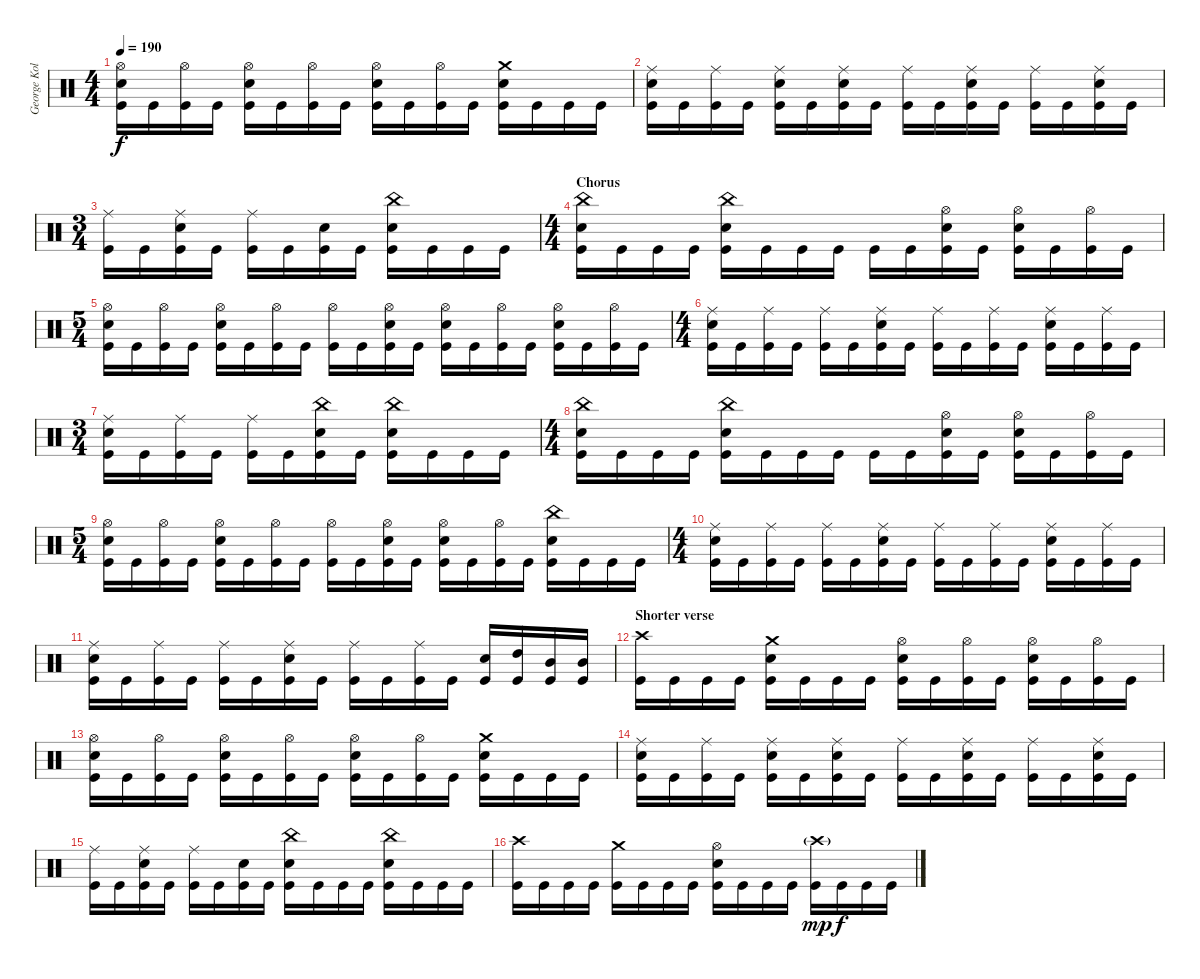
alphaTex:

\track ("George Kollias" "George Kol") {instrument percussion}
\staff {score}
\articulation defaults
\ts (4 4)
\tempo 190
\clef neutral
\ks c
("Hi-Hat (open)" "Snare (hit) 2" "Kick (hit)").16{dy f} "Kick (hit)".16 ("Hi-Hat (open)" "Kick (hit)").16 "Kick (hit)".16 ("Hi-Hat (open)" "Snare (hit) 2" "Kick (hit)").16 "Kick (hit)".16 ("Hi-Hat (open)" "Kick (hit)").16 "Kick (hit)".16 ("Hi-Hat (open)" "Snare (hit) 2" "Kick (hit)").16 "Kick (hit)".16 ("Hi-Hat (open)" "Kick (hit)").16 "Kick (hit)".16 ("Crash medium (hit)" "Snare (hit) 2" "Kick (hit)").16 "Kick (hit)".16 "Kick (hit)".16 "Kick (hit)".16 |
("Ride (middle)" "Snare (hit) 2" "Kick (hit)").16 "Kick (hit)".16 ("Ride (middle)" "Kick (hit)").16 "Kick (hit)".16 ("Ride (middle)" "Snare (hit) 2" "Kick (hit)").16 "Kick (hit)".16 ("Ride (middle)" "Snare (hit) 2" "Kick (hit)").16 "Kick (hit)".16 ("Ride (middle)" "Kick (hit)").16 "Kick (hit)".16 ("Ride (middle)" "Snare (hit) 2" "Kick (hit)").16 "Kick (hit)".16 ("Ride (middle)" "Kick (hit)").16 "Kick (hit)".16 ("Ride (middle)" "Snare (hit) 2" "Kick (hit)").16 "Kick (hit)".16 |
\ts (3 4)
("Ride (middle)" "Kick (hit)").16 "Kick (hit)".16 ("Ride (middle)" "Snare (hit) 2" "Kick (hit)").16 "Kick (hit)".16 ("Ride (middle)" "Kick (hit)").16 "Kick (hit)".16 ("Snare (hit) 2" "Kick (hit)").16 "Kick (hit)".16 ("China (hit)" "Snare (hit) 2" "Kick (hit)").16 "Kick (hit)".16 "Kick (hit)".16 "Kick (hit)".16 |
\ts (4 4)
\section ("" "Chorus")
("China (hit)" "Snare (hit) 2" "Kick (hit)").16 "Kick (hit)".16 "Kick (hit)".16 "Kick (hit)".16 ("China (hit)" "Snare (hit) 2" "Kick (hit)").16 "Kick (hit)".16 "Kick (hit)".16 "Kick (hit)".16 "Kick (hit)".16 "Kick (hit)".16 ("Hi-Hat (open)" "Snare (hit) 2" "Kick (hit)").16 "Kick (hit)".16 ("Hi-Hat (open)" "Snare (hit) 2" "Kick (hit)").16 "Kick (hit)".16 ("Hi-Hat (open)" "Kick (hit)").16 "Kick (hit)".16 |
\ts (5 4)
("Hi-Hat (open)" "Snare (hit) 2" "Kick (hit)").16 "Kick (hit)".16 ("Hi-Hat (open)" "Kick (hit)").16 "Kick (hit)".16 ("Hi-Hat (open)" "Snare (hit) 2" "Kick (hit)").16 "Kick (hit)".16 ("Hi-Hat (open)" "Kick (hit)").16 "Kick (hit)".16 ("Hi-Hat (open)" "Kick (hit)").16 "Kick (hit)".16 ("Hi-Hat (open)" "Snare (hit) 2" "Kick (hit)").16 "Kick (hit)".16 ("Hi-Hat (open)" "Snare (hit) 2" "Kick (hit)").16 "Kick (hit)".16 ("Hi-Hat (open)" "Kick (hit)").16 "Kick (hit)".16 ("Hi-Hat (open)" "Snare (hit) 2" "Kick (hit)").16 "Kick (hit)".16 ("Hi-Hat (open)" "Kick (hit)").16 "Kick (hit)".16 |
\ts (4 4)
("Ride (middle)" "Snare (hit) 2" "Kick (hit)").16 "Kick (hit)".16 ("Ride (middle)" "Kick (hit)").16 "Kick (hit)".16 ("Ride (middle)" "Kick (hit)").16 "Kick (hit)".16 ("Ride (middle)" "Snare (hit) 2" "Kick (hit)").16 "Kick (hit)".16 ("Ride (middle)" "Kick (hit)").16 "Kick (hit)".16 ("Ride (middle)" "Kick (hit)").16 "Kick (hit)".16 ("Ride (middle)" "Snare (hit) 2" "Kick (hit)").16 "Kick (hit)".16 ("Ride (middle)" "Kick (hit)").16 "Kick (hit)".16 |
\ts (3 4)
("Ride (middle)" "Snare (hit) 2" "Kick (hit)").16 "Kick (hit)".16 ("Ride (middle)" "Kick (hit)").16 "Kick (hit)".16 ("Ride (middle)" "Kick (hit)").16 "Kick (hit)".16 ("China (hit)" "Snare (hit) 2" "Kick (hit)").16 "Kick (hit)".16 ("China (hit)" "Snare (hit) 2" "Kick (hit)").16 "Kick (hit)".16 "Kick (hit)".16 "Kick (hit)".16 |
\ts (4 4)
("China (hit)" "Snare (hit) 2" "Kick (hit)").16 "Kick (hit)".16 "Kick (hit)".16 "Kick (hit)".16 ("China (hit)" "Snare (hit) 2" "Kick (hit)").16 "Kick (hit)".16 "Kick (hit)".16 "Kick (hit)".16 "Kick (hit)".16 "Kick (hit)".16 ("Hi-Hat (open)" "Snare (hit) 2" "Kick (hit)").16 "Kick (hit)".16 ("Hi-Hat (open)" "Snare (hit) 2" "Kick (hit)").16 "Kick (hit)".16 ("Hi-Hat (open)" "Kick (hit)").16 "Kick (hit)".16 |
\ts (5 4)
("Hi-Hat (open)" "Snare (hit) 2" "Kick (hit)").16 "Kick (hit)".16 ("Hi-Hat (open)" "Kick (hit)").16 "Kick (hit)".16 ("Hi-Hat (open)" "Snare (hit) 2" "Kick (hit)").16 "Kick (hit)".16 ("Hi-Hat (open)" "Kick (hit)").16 "Kick (hit)".16 ("Hi-Hat (open)" "Kick (hit)").16 "Kick (hit)".16 ("Hi-Hat (open)" "Snare (hit) 2" "Kick (hit)").16 "Kick (hit)".16 ("Hi-Hat (open)" "Snare (hit) 2" "Kick (hit)").16 "Kick (hit)".16 ("Hi-Hat (open)" "Kick (hit)").16 "Kick (hit)".16 ("China (hit)" "Snare (hit) 2" "Kick (hit)").16 "Kick (hit)".16 "Kick (hit)".16 "Kick (hit)".16 |
\ts (4 4)
("Ride (middle)" "Snare (hit) 2" "Kick (hit)").16 "Kick (hit)".16 ("Ride (middle)" "Kick (hit)").16 "Kick (hit)".16 ("Ride (middle)" "Kick (hit)").16 "Kick (hit)".16 ("Ride (middle)" "Snare (hit) 2" "Kick (hit)").16 "Kick (hit)".16 ("Ride (middle)" "Kick (hit)").16 "Kick (hit)".16 ("Ride (middle)" "Kick (hit)").16 "Kick (hit)".16 ("Ride (middle)" "Snare (hit) 2" "Kick (hit)").16 "Kick (hit)".16 ("Ride (middle)" "Kick (hit)").16 "Kick (hit)".16 |
("Ride (middle)" "Snare (hit) 2" "Kick (hit)").16 "Kick (hit)".16 ("Ride (middle)" "Kick (hit)").16 "Kick (hit)".16 ("Ride (middle)" "Kick (hit)").16 "Kick (hit)".16 ("Ride (middle)" "Snare (hit) 2" "Kick (hit)").16 "Kick (hit)".16 ("Ride (middle)" "Kick (hit)").16 "Kick (hit)".16 ("Ride (middle)" "Kick (hit)").16 "Kick (hit)".16 ("Snare (hit) 2" "Kick (hit)").16 ("High Tom (hit)" "Kick (hit)").16 ("Mid Tom (hit)" "Kick (hit)").16 ("Mid Tom (hit)" "Kick (hit)").16 |
\section ("" "Shorter verse")
("Crash high (hit)" "Kick (hit)").16 "Kick (hit)".16 "Kick (hit)".16 "Kick (hit)".16 ("Crash medium (hit)" "Snare (hit) 2" "Kick (hit)").16 "Kick (hit)".16 "Kick (hit)".16 "Kick (hit)".16 ("Hi-Hat (open)" "Snare (hit) 2" "Kick (hit)").16 "Kick (hit)".16 ("Hi-Hat (open)" "Kick (hit)").16 "Kick (hit)".16 ("Hi-Hat (open)" "Snare (hit) 2" "Kick (hit)").16 "Kick (hit)".16 ("Hi-Hat (open)" "Kick (hit)").16 "Kick (hit)".16 |
("Hi-Hat (open)" "Snare (hit) 2" "Kick (hit)").16 "Kick (hit)".16 ("Hi-Hat (open)" "Kick (hit)").16 "Kick (hit)".16 ("Hi-Hat (open)" "Snare (hit) 2" "Kick (hit)").16 "Kick (hit)".16 ("Hi-Hat (open)" "Kick (hit)").16 "Kick (hit)".16 ("Hi-Hat (open)" "Snare (hit) 2" "Kick (hit)").16 "Kick (hit)".16 ("Hi-Hat (open)" "Kick (hit)").16 "Kick (hit)".16 ("Crash medium (hit)" "Snare (hit) 2" "Kick (hit)").16 "Kick (hit)".16 "Kick (hit)".16 "Kick (hit)".16 |
("Ride (middle)" "Snare (hit) 2" "Kick (hit)").16 "Kick (hit)".16 ("Ride (middle)" "Kick (hit)").16 "Kick (hit)".16 ("Ride (middle)" "Snare (hit) 2" "Kick (hit)").16 "Kick (hit)".16 ("Ride (middle)" "Snare (hit) 2" "Kick (hit)").16 "Kick (hit)".16 ("Ride (middle)" "Kick (hit)").16 "Kick (hit)".16 ("Ride (middle)" "Snare (hit) 2" "Kick (hit)").16 "Kick (hit)".16 ("Ride (middle)" "Kick (hit)").16 "Kick (hit)".16 ("Ride (middle)" "Snare (hit) 2" "Kick (hit)").16 "Kick (hit)".16 |
("Ride (middle)" "Kick (hit)").16 "Kick (hit)".16 ("Ride (middle)" "Snare (hit) 2" "Kick (hit)").16 "Kick (hit)".16 ("Ride (middle)" "Kick (hit)").16 "Kick (hit)".16 ("Snare (hit) 2" "Kick (hit)").16 "Kick (hit)".16 ("China (hit)" "Snare (hit) 2" "Kick (hit)").16 "Kick (hit)".16 "Kick (hit)".16 "Kick (hit)".16 ("China (hit)" "Snare (hit) 2" "Kick (hit)").16 "Kick (hit)".16 "Kick (hit)".16 "Kick (hit)".16 |
("Crash high (hit)" "Kick (hit)").16 "Kick (hit)".16 "Kick (hit)".16 "Kick (hit)".16 ("Crash medium (hit)" "Kick (hit)").16 "Kick (hit)".16 "Kick (hit)".16 "Kick (hit)".16 ("Hi-Hat (open)" "Snare (hit) 2" "Kick (hit)").16 "Kick (hit)".16 "Kick (hit)".16 "Kick (hit)".16 ("Crash high (hit)"{g} "Kick (hit)").16{dy mp} "Kick (hit)".16{dy f} "Kick (hit)".16 "Kick (hit)".16
